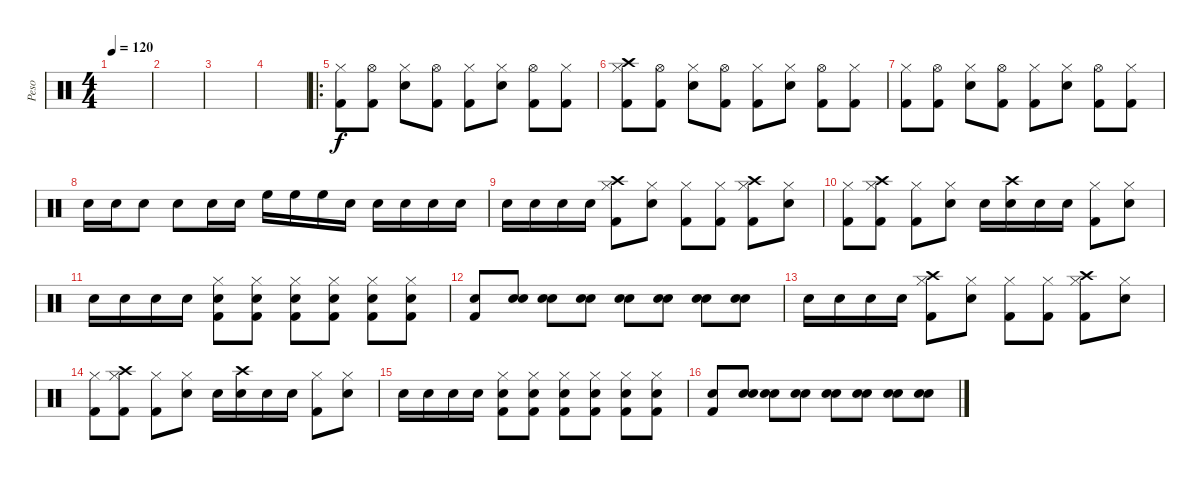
\track ("Peso" "Peso") {instrument percussion}
\staff {score}
\articulation defaults
\ts (4 4)
\tempo 120
\clef neutral
\ks c
|
|
|
|
\ro
("Hi-Hat (closed)" "Kick (hit) 2").8 ("Hi-Hat (open)" "Kick (hit) 2").8 ("Hi-Hat (closed)" "Snare (hit) 2").8 ("Hi-Hat (open)" "Kick (hit) 2").8 ("Hi-Hat (closed)" "Kick (hit) 2").8 ("Hi-Hat (closed)" "Snare (hit) 2").8 ("Hi-Hat (open)" "Kick (hit) 2").8 ("Hi-Hat (closed)" "Kick (hit) 2").8 |
("Crash high (hit)" "Hi-Hat (closed)" "Kick (hit) 2").8 ("Hi-Hat (open)" "Kick (hit) 2").8 ("Hi-Hat (closed)" "Snare (hit) 2").8 ("Hi-Hat (open)" "Kick (hit) 2").8 ("Hi-Hat (closed)" "Kick (hit) 2").8 ("Hi-Hat (closed)" "Snare (hit) 2").8 ("Hi-Hat (open)" "Kick (hit) 2").8 ("Hi-Hat (closed)" "Kick (hit) 2").8 |
("Hi-Hat (closed)" "Kick (hit) 2").8 ("Hi-Hat (open)" "Kick (hit) 2").8 ("Hi-Hat (closed)" "Snare (hit) 2").8 ("Hi-Hat (open)" "Kick (hit) 2").8 ("Hi-Hat (closed)" "Kick (hit) 2").8 ("Hi-Hat (closed)" "Snare (hit) 2").8 ("Hi-Hat (open)" "Kick (hit) 2").8 ("Hi-Hat (closed)" "Kick (hit) 2").8 |
"Snare (hit) 2".16 "Snare (hit) 2".16 "Snare (hit) 2".8 "Snare (hit) 2".8 "Snare (hit) 2".16 "Snare (hit) 2".16 "High Floor Tom (hit)".16 "High Floor Tom (hit)".16 "High Floor Tom (hit)".16 "Snare (hit) 2".16 "Snare (hit) 2".16 "Snare (hit) 2".16 "Snare (hit) 2".16 "Snare (hit) 2".16 |
"Snare (hit) 2".16 "Snare (hit) 2".16 "Snare (hit) 2".16 "Snare (hit) 2".16 ("Crash high (hit)" "Hi-Hat (closed)" "Kick (hit) 2").8 ("Hi-Hat (closed)" "Snare (hit) 2").8 ("Hi-Hat (closed)" "Kick (hit) 2").8 ("Hi-Hat (closed)" "Kick (hit) 2").8 ("Crash high (hit)" "Hi-Hat (closed)" "Kick (hit) 2").8 ("Hi-Hat (closed)" "Snare (hit) 2").8 |
("Hi-Hat (closed)" "Kick (hit) 2").8 ("Crash high (hit)" "Hi-Hat (closed)" "Kick (hit) 2").8 ("Hi-Hat (closed)" "Kick (hit) 2").8 ("Hi-Hat (closed)" "Snare (hit) 2").8 "Snare (hit) 2".16 ("Crash high (hit)" "Snare (hit) 2").16 "Snare (hit) 2".16 "Snare (hit) 2".16 ("Hi-Hat (closed)" "Kick (hit) 2").8 ("Hi-Hat (closed)" "Snare (hit) 2").8 |
"Snare (hit) 2".16 "Snare (hit) 2".16 "Snare (hit) 2".16 "Snare (hit) 2".16 ("Hi-Hat (closed)" "Snare (hit) 2" "Kick (hit) 2").8 ("Hi-Hat (closed)" "Snare (hit) 2" "Kick (hit) 2").8 ("Hi-Hat (closed)" "Snare (hit) 2" "Kick (hit) 2").8 ("Hi-Hat (closed)" "Snare (hit) 2" "Kick (hit) 2").8 ("Hi-Hat (closed)" "Snare (hit) 2" "Kick (hit) 2").8 ("Hi-Hat (closed)" "Snare (hit) 2" "Kick (hit) 2").8 |
("Snare (hit) 2" "Kick (hit) 2").8 ("Snare (hit) 2" "Snare (hit) 2").8 ("Snare (hit) 2" "Snare (hit) 2").8 ("Snare (hit) 2" "Snare (hit) 2").8 ("Snare (hit) 2" "Snare (hit) 2").8 ("Snare (hit) 2" "Snare (hit) 2").8 ("Snare (hit) 2" "Snare (hit) 2").8 ("Snare (hit) 2" "Snare (hit) 2").8 |
"Snare (hit) 2".16 "Snare (hit) 2".16 "Snare (hit) 2".16 "Snare (hit) 2".16 ("Crash high (hit)" "Hi-Hat (closed)" "Kick (hit) 2").8 ("Hi-Hat (closed)" "Snare (hit) 2").8 ("Hi-Hat (closed)" "Kick (hit) 2").8 ("Hi-Hat (closed)" "Kick (hit) 2").8 ("Crash high (hit)" "Hi-Hat (closed)" "Kick (hit) 2").8 ("Hi-Hat (closed)" "Snare (hit) 2").8 |
("Hi-Hat (closed)" "Kick (hit) 2").8 ("Crash high (hit)" "Hi-Hat (closed)" "Kick (hit) 2").8 ("Hi-Hat (closed)" "Kick (hit) 2").8 ("Hi-Hat (closed)" "Snare (hit) 2").8 "Snare (hit) 2".16 ("Crash high (hit)" "Snare (hit) 2").16 "Snare (hit) 2".16 "Snare (hit) 2".16 ("Hi-Hat (closed)" "Kick (hit) 2").8 ("Hi-Hat (closed)" "Snare (hit) 2").8 |
"Snare (hit) 2".16 "Snare (hit) 2".16 "Snare (hit) 2".16 "Snare (hit) 2".16 ("Hi-Hat (closed)" "Snare (hit) 2" "Kick (hit) 2").8 ("Hi-Hat (closed)" "Snare (hit) 2" "Kick (hit) 2").8 ("Hi-Hat (closed)" "Snare (hit) 2" "Kick (hit) 2").8 ("Hi-Hat (closed)" "Snare (hit) 2" "Kick (hit) 2").8 ("Hi-Hat (closed)" "Snare (hit) 2" "Kick (hit) 2").8 ("Hi-Hat (closed)" "Snare (hit) 2" "Kick (hit) 2").8 |
("Snare (hit) 2" "Kick (hit) 2").8 ("Snare (hit) 2" "Snare (hit) 2").8 ("Snare (hit) 2" "Snare (hit) 2").8 ("Snare (hit) 2" "Snare (hit) 2").8 ("Snare (hit) 2" "Snare (hit) 2").8 ("Snare (hit) 2" "Snare (hit) 2").8 ("Snare (hit) 2" "Snare (hit) 2").8 ("Snare (hit) 2" "Snare (hit) 2").8
